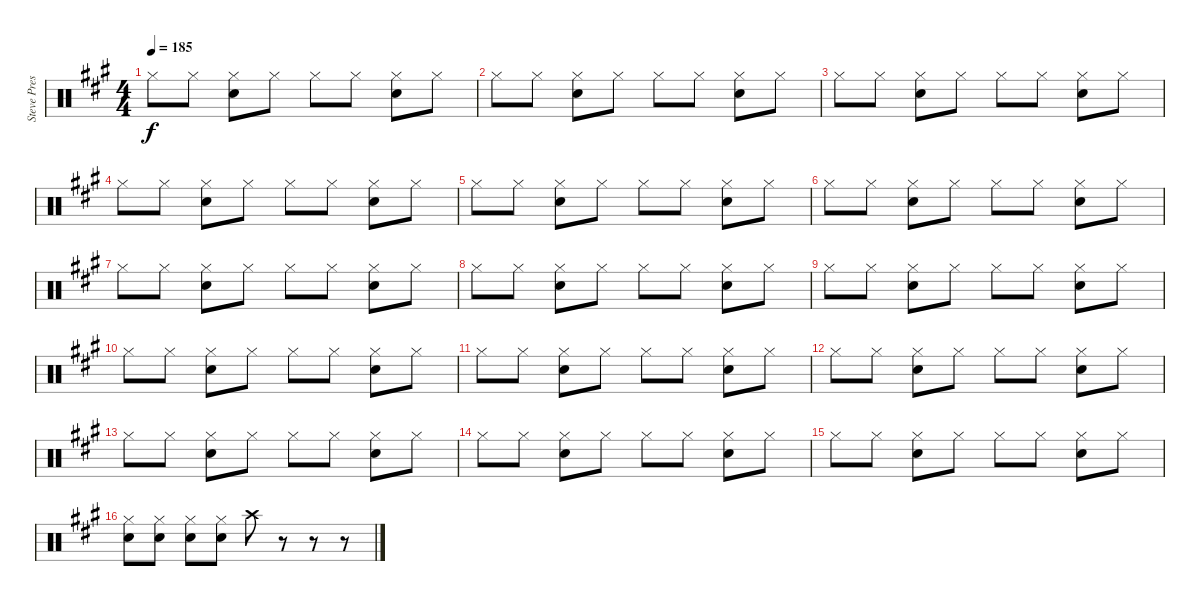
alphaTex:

\track ("Steve Preswhich" "Steve Pres") {instrument percussion}
\staff {score}
\articulation defaults
\ts (4 4)
\tempo 185
\clef neutral
\ks a "Hi-Hat (closed)".8{dy f} "Hi-Hat (closed)".8
("Hi-Hat (closed)" "Electric Snare (hit)").8 "Hi-Hat (closed)".8 "Hi-Hat (closed)".8 "Hi-Hat (closed)".8 ("Hi-Hat (closed)" "Electric Snare (hit)").8 "Hi-Hat (closed)".8 |
"Hi-Hat (closed)".8 "Hi-Hat (closed)".8 ("Hi-Hat (closed)" "Electric Snare (hit)").8 "Hi-Hat (closed)".8 "Hi-Hat (closed)".8 "Hi-Hat (closed)".8 ("Hi-Hat (closed)" "Electric Snare (hit)").8 "Hi-Hat (closed)".8 |
"Hi-Hat (closed)".8 "Hi-Hat (closed)".8 ("Hi-Hat (closed)" "Electric Snare (hit)").8 "Hi-Hat (closed)".8 "Hi-Hat (closed)".8 "Hi-Hat (closed)".8 ("Hi-Hat (closed)" "Electric Snare (hit)").8 "Hi-Hat (closed)".8 |
"Hi-Hat (closed)".8 "Hi-Hat (closed)".8 ("Hi-Hat (closed)" "Electric Snare (hit)").8 "Hi-Hat (closed)".8 "Hi-Hat (closed)".8 "Hi-Hat (closed)".8 ("Hi-Hat (closed)" "Electric Snare (hit)").8 "Hi-Hat (closed)".8 |
"Hi-Hat (closed)".8 "Hi-Hat (closed)".8 ("Hi-Hat (closed)" "Electric Snare (hit)").8 "Hi-Hat (closed)".8 "Hi-Hat (closed)".8 "Hi-Hat (closed)".8 ("Hi-Hat (closed)" "Electric Snare (hit)").8 "Hi-Hat (closed)".8 |
"Hi-Hat (closed)".8 "Hi-Hat (closed)".8 ("Hi-Hat (closed)" "Electric Snare (hit)").8 "Hi-Hat (closed)".8 "Hi-Hat (closed)".8 "Hi-Hat (closed)".8 ("Hi-Hat (closed)" "Electric Snare (hit)").8 "Hi-Hat (closed)".8 |
"Hi-Hat (closed)".8 "Hi-Hat (closed)".8 ("Hi-Hat (closed)" "Electric Snare (hit)").8 "Hi-Hat (closed)".8 "Hi-Hat (closed)".8 "Hi-Hat (closed)".8 ("Hi-Hat (closed)" "Electric Snare (hit)").8 "Hi-Hat (closed)".8 |
"Hi-Hat (closed)".8 "Hi-Hat (closed)".8 ("Hi-Hat (closed)" "Electric Snare (hit)").8 "Hi-Hat (closed)".8 "Hi-Hat (closed)".8 "Hi-Hat (closed)".8 ("Hi-Hat (closed)" "Electric Snare (hit)").8 "Hi-Hat (closed)".8 |
"Hi-Hat (closed)".8 "Hi-Hat (closed)".8 ("Hi-Hat (closed)" "Electric Snare (hit)").8 "Hi-Hat (closed)".8 "Hi-Hat (closed)".8 "Hi-Hat (closed)".8 ("Hi-Hat (closed)" "Electric Snare (hit)").8 "Hi-Hat (closed)".8 |
"Hi-Hat (closed)".8 "Hi-Hat (closed)".8 ("Hi-Hat (closed)" "Electric Snare (hit)").8 "Hi-Hat (closed)".8 "Hi-Hat (closed)".8 "Hi-Hat (closed)".8 ("Hi-Hat (closed)" "Electric Snare (hit)").8 "Hi-Hat (closed)".8 |
"Hi-Hat (closed)".8 "Hi-Hat (closed)".8 ("Hi-Hat (closed)" "Electric Snare (hit)").8 "Hi-Hat (closed)".8 "Hi-Hat (closed)".8 "Hi-Hat (closed)".8 ("Hi-Hat (closed)" "Electric Snare (hit)").8 "Hi-Hat (closed)".8 |
"Hi-Hat (closed)".8 "Hi-Hat (closed)".8 ("Hi-Hat (closed)" "Electric Snare (hit)").8 "Hi-Hat (closed)".8 "Hi-Hat (closed)".8 "Hi-Hat (closed)".8 ("Hi-Hat (closed)" "Electric Snare (hit)").8 "Hi-Hat (closed)".8 |
"Hi-Hat (closed)".8 "Hi-Hat (closed)".8 ("Hi-Hat (closed)" "Electric Snare (hit)").8 "Hi-Hat (closed)".8 "Hi-Hat (closed)".8 "Hi-Hat (closed)".8 ("Hi-Hat (closed)" "Electric Snare (hit)").8 "Hi-Hat (closed)".8 |
"Hi-Hat (closed)".8 "Hi-Hat (closed)".8 ("Hi-Hat (closed)" "Electric Snare (hit)").8 "Hi-Hat (closed)".8 "Hi-Hat (closed)".8 "Hi-Hat (closed)".8 ("Hi-Hat (closed)" "Electric Snare (hit)").8 "Hi-Hat (closed)".8 |
"Hi-Hat (closed)".8 "Hi-Hat (closed)".8 ("Hi-Hat (closed)" "Electric Snare (hit)").8 "Hi-Hat (closed)".8 "Hi-Hat (closed)".8 "Hi-Hat (closed)".8 ("Hi-Hat (closed)" "Electric Snare (hit)").8 "Hi-Hat (closed)".8 |
("Hi-Hat (closed)" "Electric Snare (hit)").8 ("Hi-Hat (closed)" "Electric Snare (hit)").8 ("Hi-Hat (closed)" "Electric Snare (hit)").8 ("Hi-Hat (closed)" "Electric Snare (hit)").8 "Crash high (hit)".8 r.8 r.8 r.8
